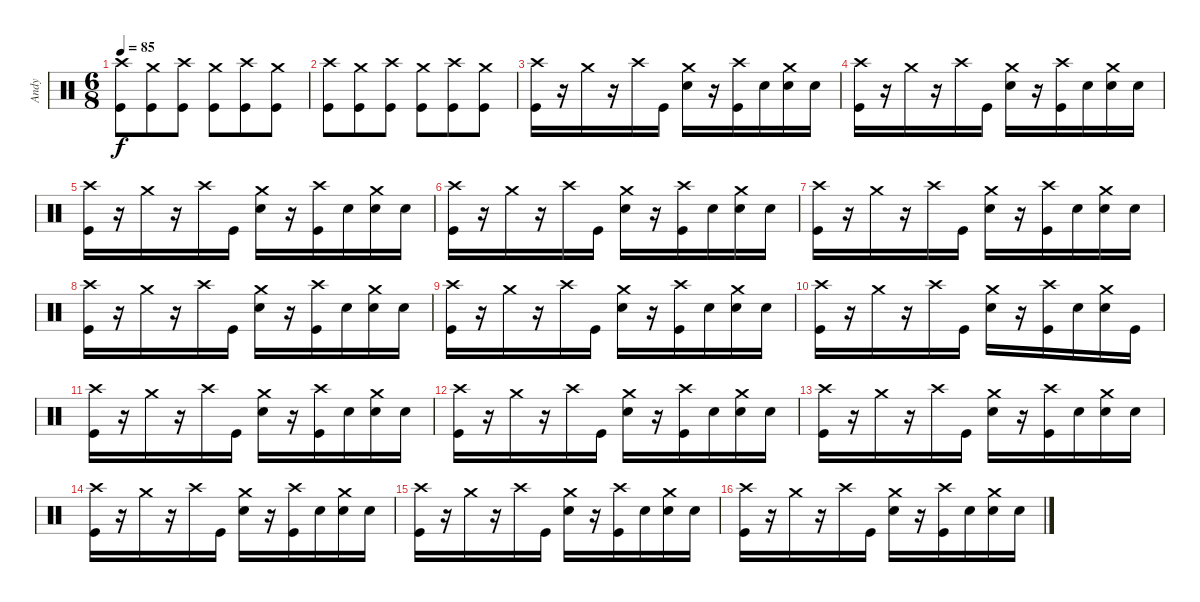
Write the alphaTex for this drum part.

\track ("Andy" "Andy") {instrument percussion}
\staff {score}
\articulation defaults
\ts (6 8)
\tempo 85
\clef neutral
\ks c
("Kick (hit)" "Crash high (hit)").8{dy f} ("Kick (hit)" "Crash medium (hit)").8 ("Kick (hit)" "Crash high (hit)").8 ("Kick (hit)" "Crash medium (hit)").8 ("Kick (hit)" "Crash high (hit)").8 ("Kick (hit)" "Crash medium (hit)").8 |
("Kick (hit)" "Crash high (hit)").8 ("Kick (hit)" "Crash medium (hit)").8 ("Kick (hit)" "Crash high (hit)").8 ("Kick (hit)" "Crash medium (hit)").8 ("Kick (hit)" "Crash high (hit)").8 ("Kick (hit)" "Crash medium (hit)").8 |
("Crash high (hit)" "Kick (hit)").16 r.16 "Crash medium (hit)".16 r.16 "Crash high (hit)".16 "Kick (hit)".16 ("Crash medium (hit)" "Snare (hit) 2").16 r.16 ("Crash high (hit)" "Kick (hit)").16 "Snare (hit) 2".16 ("Crash medium (hit)" "Snare (hit) 2").16 "Snare (hit) 2".16 |
("Crash high (hit)" "Kick (hit)").16 r.16 "Crash medium (hit)".16 r.16 "Crash high (hit)".16 "Kick (hit)".16 ("Crash medium (hit)" "Snare (hit) 2").16 r.16 ("Crash high (hit)" "Kick (hit)").16 "Snare (hit) 2".16 ("Crash medium (hit)" "Snare (hit) 2").16 "Snare (hit) 2".16 |
("Crash high (hit)" "Kick (hit)").16 r.16 "Crash medium (hit)".16 r.16 "Crash high (hit)".16 "Kick (hit)".16 ("Crash medium (hit)" "Snare (hit) 2").16 r.16 ("Crash high (hit)" "Kick (hit)").16 "Snare (hit) 2".16 ("Crash medium (hit)" "Snare (hit) 2").16 "Snare (hit) 2".16 |
("Crash high (hit)" "Kick (hit)").16 r.16 "Crash medium (hit)".16 r.16 "Crash high (hit)".16 "Kick (hit)".16 ("Crash medium (hit)" "Snare (hit) 2").16 r.16 ("Crash high (hit)" "Kick (hit)").16 "Snare (hit) 2".16 ("Crash medium (hit)" "Snare (hit) 2").16 "Snare (hit) 2".16 |
("Crash high (hit)" "Kick (hit)").16 r.16 "Crash medium (hit)".16 r.16 "Crash high (hit)".16 "Kick (hit)".16 ("Crash medium (hit)" "Snare (hit) 2").16 r.16 ("Crash high (hit)" "Kick (hit)").16 "Snare (hit) 2".16 ("Crash medium (hit)" "Snare (hit) 2").16 "Snare (hit) 2".16 |
("Crash high (hit)" "Kick (hit)").16 r.16 "Crash medium (hit)".16 r.16 "Crash high (hit)".16 "Kick (hit)".16 ("Crash medium (hit)" "Snare (hit) 2").16 r.16 ("Crash high (hit)" "Kick (hit)").16 "Snare (hit) 2".16 ("Crash medium (hit)" "Snare (hit) 2").16 "Snare (hit) 2".16 |
("Crash high (hit)" "Kick (hit)").16 r.16 "Crash medium (hit)".16 r.16 "Crash high (hit)".16 "Kick (hit)".16 ("Crash medium (hit)" "Snare (hit) 2").16 r.16 ("Crash high (hit)" "Kick (hit)").16 "Snare (hit) 2".16 ("Crash medium (hit)" "Snare (hit) 2").16 "Snare (hit) 2".16 |
("Crash high (hit)" "Kick (hit)").16 r.16 "Crash medium (hit)".16 r.16 "Crash high (hit)".16 "Kick (hit)".16 ("Crash medium (hit)" "Snare (hit) 2").16 r.16 ("Crash high (hit)" "Kick (hit)").16 "Snare (hit) 2".16 ("Crash medium (hit)" "Snare (hit) 2").16 "Kick (hit)".16 |
("Crash high (hit)" "Kick (hit)").16 r.16 "Crash medium (hit)".16 r.16 "Crash high (hit)".16 "Kick (hit)".16 ("Crash medium (hit)" "Snare (hit) 2").16 r.16 ("Crash high (hit)" "Kick (hit)").16 "Snare (hit) 2".16 ("Crash medium (hit)" "Snare (hit) 2").16 "Snare (hit) 2".16 |
("Crash high (hit)" "Kick (hit)").16 r.16 "Crash medium (hit)".16 r.16 "Crash high (hit)".16 "Kick (hit)".16 ("Crash medium (hit)" "Snare (hit) 2").16 r.16 ("Crash high (hit)" "Kick (hit)").16 "Snare (hit) 2".16 ("Crash medium (hit)" "Snare (hit) 2").16 "Snare (hit) 2".16 |
("Crash high (hit)" "Kick (hit)").16 r.16 "Crash medium (hit)".16 r.16 "Crash high (hit)".16 "Kick (hit)".16 ("Crash medium (hit)" "Snare (hit) 2").16 r.16 ("Crash high (hit)" "Kick (hit)").16 "Snare (hit) 2".16 ("Crash medium (hit)" "Snare (hit) 2").16 "Snare (hit) 2".16 |
("Crash high (hit)" "Kick (hit)").16 r.16 "Crash medium (hit)".16 r.16 "Crash high (hit)".16 "Kick (hit)".16 ("Crash medium (hit)" "Snare (hit) 2").16 r.16 ("Crash high (hit)" "Kick (hit)").16 "Snare (hit) 2".16 ("Crash medium (hit)" "Snare (hit) 2").16 "Snare (hit) 2".16 |
("Crash high (hit)" "Kick (hit)").16 r.16 "Crash medium (hit)".16 r.16 "Crash high (hit)".16 "Kick (hit)".16 ("Crash medium (hit)" "Snare (hit) 2").16 r.16 ("Crash high (hit)" "Kick (hit)").16 "Snare (hit) 2".16 ("Crash medium (hit)" "Snare (hit) 2").16 "Snare (hit) 2".16 |
("Crash high (hit)" "Kick (hit)").16 r.16 "Crash medium (hit)".16 r.16 "Crash high (hit)".16 "Kick (hit)".16 ("Crash medium (hit)" "Snare (hit) 2").16 r.16 ("Crash high (hit)" "Kick (hit)").16 "Snare (hit) 2".16 ("Crash medium (hit)" "Snare (hit) 2").16 "Snare (hit) 2".16
